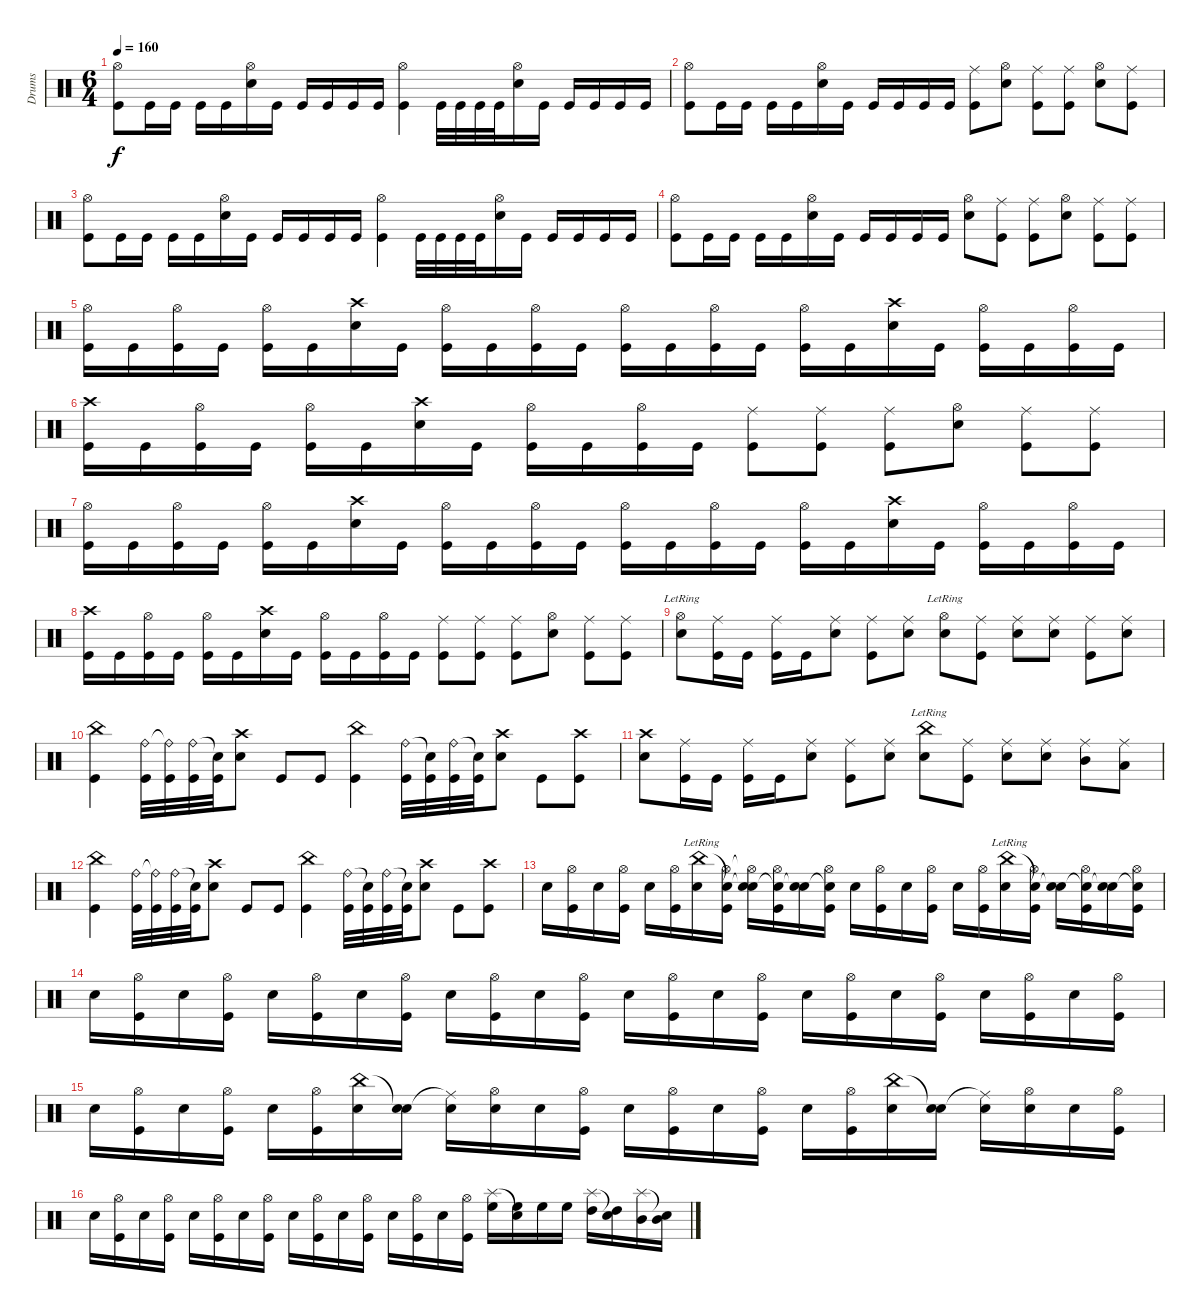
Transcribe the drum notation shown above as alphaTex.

\track ("Drums" "Drums") {instrument percussion}
\staff {score}
\articulation defaults
\ts (6 4)
\tempo 160
\clef neutral
\ks c
("Hi-Hat (open)" "Kick (hit)").8{dy f} "Kick (hit)".16 "Kick (hit)".16 "Kick (hit)".16 "Kick (hit)".16 ("Hi-Hat (open)" "Snare (hit) 2").16 "Kick (hit)".16 "Kick (hit)".16 "Kick (hit)".16 "Kick (hit)".16 "Kick (hit)".16 ("Hi-Hat (open)" "Kick (hit)").4 "Kick (hit)".32 "Kick (hit)".32 "Kick (hit)".32 "Kick (hit)".32 ("Hi-Hat (open)" "Snare (hit) 2").16 "Kick (hit)".16 "Kick (hit)".16 "Kick (hit)".16 "Kick (hit)".16 "Kick (hit)".16 |
("Hi-Hat (open)" "Kick (hit)").8 "Kick (hit)".16 "Kick (hit)".16 "Kick (hit)".16 "Kick (hit)".16 ("Hi-Hat (open)" "Snare (hit) 2").16 "Kick (hit)".16 "Kick (hit)".16 "Kick (hit)".16 "Kick (hit)".16 "Kick (hit)".16 ("Ride (middle)" "Kick (hit)").8 ("Hi-Hat (open)" "Snare (hit) 2").8 ("Ride (middle)" "Kick (hit)").8 ("Ride (middle)" "Kick (hit)").8 ("Hi-Hat (open)" "Snare (hit) 2").8 ("Ride (middle)" "Kick (hit)").8 |
("Hi-Hat (open)" "Kick (hit)").8 "Kick (hit)".16 "Kick (hit)".16 "Kick (hit)".16 "Kick (hit)".16 ("Hi-Hat (open)" "Snare (hit) 2").16 "Kick (hit)".16 "Kick (hit)".16 "Kick (hit)".16 "Kick (hit)".16 "Kick (hit)".16 ("Hi-Hat (open)" "Kick (hit)").4 "Kick (hit)".32 "Kick (hit)".32 "Kick (hit)".32 "Kick (hit)".32 ("Hi-Hat (open)" "Snare (hit) 2").16 "Kick (hit)".16 "Kick (hit)".16 "Kick (hit)".16 "Kick (hit)".16 "Kick (hit)".16 |
("Hi-Hat (open)" "Kick (hit)").8 "Kick (hit)".16 "Kick (hit)".16 "Kick (hit)".16 "Kick (hit)".16 ("Hi-Hat (open)" "Snare (hit) 2").16 "Kick (hit)".16 "Kick (hit)".16 "Kick (hit)".16 "Kick (hit)".16 "Kick (hit)".16 ("Hi-Hat (open)" "Electric Snare (hit)").8 ("Ride (middle)" "Kick (hit)").8 ("Ride (middle)" "Kick (hit)").8 ("Hi-Hat (open)" "Electric Snare (hit)").8 ("Ride (middle)" "Kick (hit)").8 ("Ride (middle)" "Kick (hit)").8 |
("Hi-Hat (open)" "Kick (hit)").16 "Kick (hit)".16 ("Hi-Hat (open)" "Kick (hit)").16 "Kick (hit)".16 ("Hi-Hat (open)" "Kick (hit)").16 "Kick (hit)".16 ("Crash high (hit)" "Snare (hit) 2").16 "Kick (hit)".16 ("Hi-Hat (open)" "Kick (hit)").16 "Kick (hit)".16 ("Hi-Hat (open)" "Kick (hit)").16 "Kick (hit)".16 ("Hi-Hat (open)" "Kick (hit)").16 "Kick (hit)".16 ("Hi-Hat (open)" "Kick (hit)").16 "Kick (hit)".16 ("Hi-Hat (open)" "Kick (hit)").16 "Kick (hit)".16 ("Crash high (hit)" "Snare (hit) 2").16 "Kick (hit)".16 ("Hi-Hat (open)" "Kick (hit)").16 "Kick (hit)".16 ("Hi-Hat (open)" "Kick (hit)").16 "Kick (hit)".16 |
("Crash high (hit)" "Kick (hit)").16 "Kick (hit)".16 ("Hi-Hat (open)" "Kick (hit)").16 "Kick (hit)".16 ("Hi-Hat (open)" "Kick (hit)").16 "Kick (hit)".16 ("Crash high (hit)" "Snare (hit) 2").16 "Kick (hit)".16 ("Hi-Hat (open)" "Kick (hit)").16 "Kick (hit)".16 ("Hi-Hat (open)" "Kick (hit)").16 "Kick (hit)".16 ("Ride (middle)" "Kick (hit)").8 ("Ride (middle)" "Kick (hit)").8 ("Ride (middle)" "Kick (hit)").8 ("Hi-Hat (open)" "Electric Snare (hit)").8 ("Ride (middle)" "Kick (hit)").8 ("Ride (middle)" "Kick (hit)").8 |
("Hi-Hat (open)" "Kick (hit)").16 "Kick (hit)".16 ("Hi-Hat (open)" "Kick (hit)").16 "Kick (hit)".16 ("Hi-Hat (open)" "Kick (hit)").16 "Kick (hit)".16 ("Crash high (hit)" "Snare (hit) 2").16 "Kick (hit)".16 ("Hi-Hat (open)" "Kick (hit)").16 "Kick (hit)".16 ("Hi-Hat (open)" "Kick (hit)").16 "Kick (hit)".16 ("Hi-Hat (open)" "Kick (hit)").16 "Kick (hit)".16 ("Hi-Hat (open)" "Kick (hit)").16 "Kick (hit)".16 ("Hi-Hat (open)" "Kick (hit)").16 "Kick (hit)".16 ("Crash high (hit)" "Snare (hit) 2").16 "Kick (hit)".16 ("Hi-Hat (open)" "Kick (hit)").16 "Kick (hit)".16 ("Hi-Hat (open)" "Kick (hit)").16 "Kick (hit)".16 |
("Crash high (hit)" "Kick (hit)").16 "Kick (hit)".16 ("Hi-Hat (open)" "Kick (hit)").16 "Kick (hit)".16 ("Hi-Hat (open)" "Kick (hit)").16 "Kick (hit)".16 ("Crash high (hit)" "Snare (hit) 2").16 "Kick (hit)".16 ("Hi-Hat (open)" "Kick (hit)").16 "Kick (hit)".16 ("Hi-Hat (open)" "Kick (hit)").16 "Kick (hit)".16 ("Ride (middle)" "Kick (hit)").8 ("Ride (middle)" "Kick (hit)").8 ("Ride (middle)" "Kick (hit)").8 ("Hi-Hat (open)" "Electric Snare (hit)").8 ("Ride (middle)" "Kick (hit)").8 ("Ride (middle)" "Kick (hit)").8 |
("Hi-Hat (open)"{lr} "Electric Snare (hit)").8 ("Ride (middle)" "Kick (hit)").16 "Kick (hit)".16 ("Ride (middle)" "Kick (hit)").16 "Kick (hit)".16 ("Ride (middle)" "Electric Snare (hit)").8 ("Ride (middle)" "Kick (hit)").8 ("Ride (middle)" "Electric Snare (hit)").8 ("Hi-Hat (open)"{lr} "Electric Snare (hit)").8 ("Ride (middle)" "Kick (hit)").8 ("Ride (middle)" "Electric Snare (hit)").8 ("Ride (middle)" "Electric Snare (hit)").8 ("Ride (middle)" "Kick (hit)").8 ("Ride (middle)" "Electric Snare (hit)").8 |
("China (hit)" "Kick (hit)").4 ("Ride (bell)" "Kick (hit)").32 ("Ride (bell)"{t} "Kick (hit)").32 ("Ride (bell)" "Kick (hit)").32 ("Snare (hit)"{t} "Kick (hit)").32 ("Crash high (hit)" "Electric Snare (hit)").8 "Kick (hit)".8 "Kick (hit)".8 ("China (hit)" "Kick (hit)").4 ("Ride (bell)" "Kick (hit)").32 ("Snare (hit)"{t} "Kick (hit)").32 ("Ride (bell)" "Kick (hit)").32 ("Snare (hit)"{t} "Kick (hit)").32 ("Crash high (hit)" "Electric Snare (hit)").8 "Kick (hit)".8 ("Crash high (hit)" "Kick (hit)").8 |
("Crash high (hit)" "Electric Snare (hit)").8 ("Ride (middle)" "Kick (hit)").16 "Kick (hit)".16 ("Ride (middle)" "Kick (hit)").16 "Kick (hit)".16 ("Ride (middle)" "Electric Snare (hit)").8 ("Ride (middle)" "Kick (hit)").8 ("Ride (middle)" "Electric Snare (hit)").8 ("China (hit)"{lr} "Electric Snare (hit)").8 ("Ride (middle)" "Kick (hit)").8 ("Ride (middle)" "Electric Snare (hit)").8 ("Ride (middle)" "Electric Snare (hit)").8 ("Ride (middle)" "Mid Tom (hit)").8 ("Ride (middle)" "Low Tom (hit)").8 |
("China (hit)" "Kick (hit)").4 ("Ride (bell)" "Kick (hit)").32 ("Ride (bell)"{t} "Kick (hit)").32 ("Ride (bell)" "Kick (hit)").32 ("Snare (hit)"{t} "Kick (hit)").32 ("Crash high (hit)" "Electric Snare (hit)").8 "Kick (hit)".8 "Kick (hit)".8 ("China (hit)" "Kick (hit)").4 ("Ride (bell)" "Kick (hit)").32 ("Snare (hit)"{t} "Kick (hit)").32 ("Ride (bell)" "Kick (hit)").32 ("Snare (hit)"{t} "Kick (hit)").32 ("Crash high (hit)" "Electric Snare (hit)").8 "Kick (hit)".8 ("Crash high (hit)" "Kick (hit)").8 |
"Electric Snare (hit)".16 ("Hi-Hat (open)" "Kick (hit)").16 "Electric Snare (hit)".16 ("Hi-Hat (open)" "Kick (hit)").16 "Electric Snare (hit)".16 ("Hi-Hat (open)" "Kick (hit)").16 ("China (hit)"{lr} "Electric Snare (hit)").16 ("Snare (hit)"{t} "Hi-Hat (open)" "Kick (hit)").16 ("Snare (hit)"{t} "Hi-Hat (open)"{t} "Electric Snare (hit)").16 ("Snare (hit)"{t} "Hi-Hat (open)" "Kick (hit)").16 ("Snare (hit)"{t} "Electric Snare (hit)").16 ("Snare (hit)"{t} "Hi-Hat (open)" "Kick (hit)").16 "Electric Snare (hit)".16 ("Hi-Hat (open)" "Kick (hit)").16 "Electric Snare (hit)".16 ("Hi-Hat (open)" "Kick (hit)").16 "Electric Snare (hit)".16 ("Hi-Hat (open)" "Kick (hit)").16 ("China (hit)"{lr} "Electric Snare (hit)").16 ("Snare (hit)"{t} "Hi-Hat (open)" "Kick (hit)").16 ("Snare (hit)"{t} "Electric Snare (hit)").16 ("Snare (hit)"{t} "Hi-Hat (open)" "Kick (hit)").16 ("Snare (hit)"{t} "Electric Snare (hit)").16 ("Snare (hit)"{t} "Hi-Hat (open)" "Kick (hit)").16 |
"Electric Snare (hit)".16 ("Hi-Hat (open)" "Kick (hit)").16 "Electric Snare (hit)".16 ("Hi-Hat (open)" "Kick (hit)").16 "Electric Snare (hit)".16 ("Hi-Hat (open)" "Kick (hit)").16 "Electric Snare (hit)".16 ("Hi-Hat (open)" "Kick (hit)").16 "Electric Snare (hit)".16 ("Hi-Hat (open)" "Kick (hit)").16 "Electric Snare (hit)".16 ("Hi-Hat (open)" "Kick (hit)").16 "Electric Snare (hit)".16 ("Hi-Hat (open)" "Kick (hit)").16 "Electric Snare (hit)".16 ("Hi-Hat (open)" "Kick (hit)").16 "Electric Snare (hit)".16 ("Hi-Hat (open)" "Kick (hit)").16 "Electric Snare (hit)".16 ("Hi-Hat (open)" "Kick (hit)").16 "Electric Snare (hit)".16 ("Hi-Hat (open)" "Kick (hit)").16 "Electric Snare (hit)".16 ("Hi-Hat (open)" "Kick (hit)").16 |
"Electric Snare (hit)".16 ("Hi-Hat (open)" "Kick (hit)").16 "Electric Snare (hit)".16 ("Hi-Hat (open)" "Kick (hit)").16 "Electric Snare (hit)".16 ("Hi-Hat (open)" "Kick (hit)").16 ("China (hit)" "Electric Snare (hit)").16 ("Snare (hit)"{t} "Electric Snare (hit)").16 ("Ride (middle)"{t} "Electric Snare (hit)").16 ("Hi-Hat (open)" "Electric Snare (hit)").16 "Electric Snare (hit)".16 ("Hi-Hat (open)" "Kick (hit)").16 "Electric Snare (hit)".16 ("Hi-Hat (open)" "Kick (hit)").16 "Electric Snare (hit)".16 ("Hi-Hat (open)" "Kick (hit)").16 "Electric Snare (hit)".16 ("Hi-Hat (open)" "Kick (hit)").16 ("China (hit)" "Electric Snare (hit)").16 ("Snare (hit)"{t} "Electric Snare (hit)").16 ("Ride (middle)"{t} "Electric Snare (hit)").16 ("Hi-Hat (open)" "Electric Snare (hit)").16 "Electric Snare (hit)".16 ("Hi-Hat (open)" "Kick (hit)").16 |
"Electric Snare (hit)".16 ("Hi-Hat (open)" "Kick (hit)").16 "Electric Snare (hit)".16 ("Hi-Hat (open)" "Kick (hit)").16 "Electric Snare (hit)".16 ("Hi-Hat (open)" "Kick (hit)").16 "Electric Snare (hit)".16 ("Hi-Hat (open)" "Kick (hit)").16 "Electric Snare (hit)".16 ("Hi-Hat (open)" "Kick (hit)").16 "Electric Snare (hit)".16 ("Hi-Hat (open)" "Kick (hit)").16 "Electric Snare (hit)".16 ("Hi-Hat (open)" "Kick (hit)").16 "Electric Snare (hit)".16 ("Hi-Hat (open)" "Kick (hit)").16 ("Splash (hit)" "High Floor Tom (hit)").16 ("Snare (hit)"{t} "High Floor Tom (hit)").16 "High Floor Tom (hit)".16 "High Floor Tom (hit)".16 ("Splash (hit)" "High Tom (hit)").16 ("Snare (hit)"{t} "High Tom (hit)").16 ("Splash (hit)" "Mid Tom (hit)").16 ("Snare (hit)"{t} "Mid Tom (hit)").16
